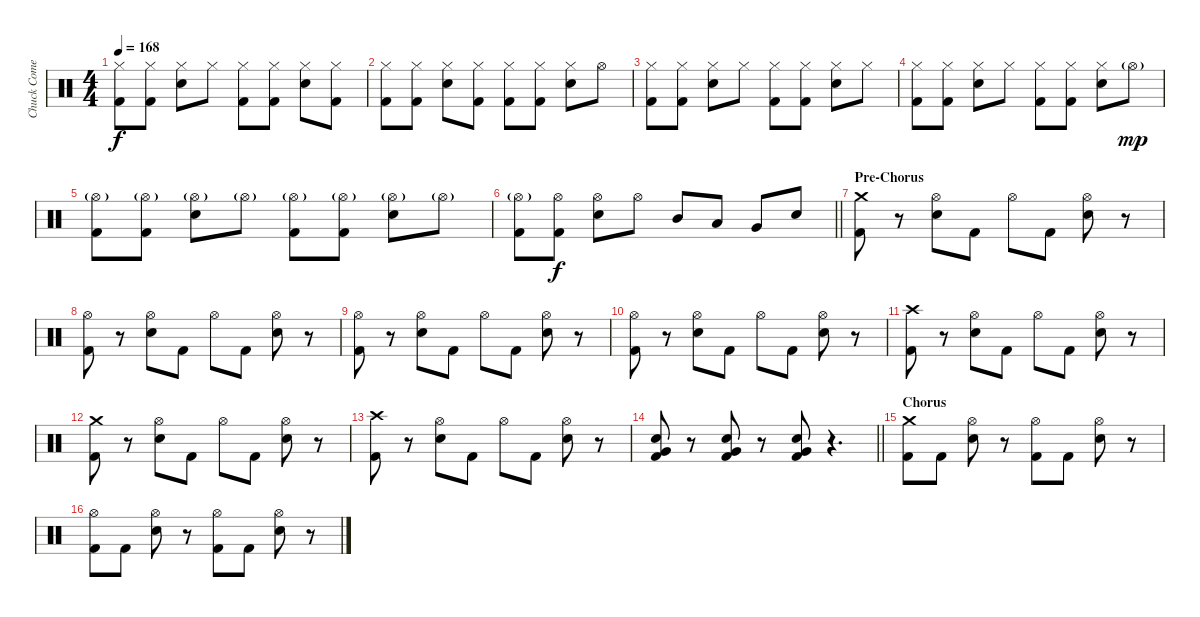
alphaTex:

\track ("Chuck Comeau" "Chuck Come") {instrument percussion}
\staff {score}
\articulation defaults
\ts (4 4)
\tempo 168
\clef neutral
\ks c
("Hi-Hat (closed)" "Kick (hit) 2").8{dy f} ("Hi-Hat (closed)" "Kick (hit) 2").8 ("Hi-Hat (closed)" "Snare (hit) 2").8 "Hi-Hat (closed)".8 ("Hi-Hat (closed)" "Kick (hit) 2").8 ("Hi-Hat (closed)" "Kick (hit) 2").8 ("Hi-Hat (closed)" "Snare (hit) 2").8 ("Hi-Hat (closed)" "Kick (hit) 2").8 |
("Hi-Hat (closed)" "Kick (hit) 2").8 ("Hi-Hat (closed)" "Kick (hit) 2").8 ("Hi-Hat (closed)" "Snare (hit) 2").8 ("Hi-Hat (closed)" "Kick (hit) 2").8 ("Hi-Hat (closed)" "Kick (hit) 2").8 ("Hi-Hat (closed)" "Kick (hit) 2").8 ("Hi-Hat (closed)" "Snare (hit) 2").8 "Hi-Hat (open)".8 |
("Hi-Hat (closed)" "Kick (hit) 2").8 ("Hi-Hat (closed)" "Kick (hit) 2").8 ("Hi-Hat (closed)" "Snare (hit) 2").8 "Hi-Hat (closed)".8 ("Hi-Hat (closed)" "Kick (hit) 2").8 ("Hi-Hat (closed)" "Kick (hit) 2").8 ("Hi-Hat (closed)" "Snare (hit) 2").8 "Hi-Hat (closed)".8 |
("Hi-Hat (closed)" "Kick (hit) 2").8 ("Hi-Hat (closed)" "Kick (hit) 2").8 ("Hi-Hat (closed)" "Snare (hit) 2").8 "Hi-Hat (closed)".8 ("Hi-Hat (closed)" "Kick (hit) 2").8 ("Hi-Hat (closed)" "Kick (hit) 2").8 ("Hi-Hat (closed)" "Snare (hit) 2").8 "Hi-Hat (open)"{g}.8{dy mp} |
("Hi-Hat (open)"{g} "Kick (hit) 2").8 ("Hi-Hat (open)"{g} "Kick (hit) 2").8 ("Hi-Hat (open)"{g} "Snare (hit) 2").8 "Hi-Hat (open)"{g}.8 ("Hi-Hat (open)"{g} "Kick (hit) 2").8 ("Hi-Hat (open)"{g} "Kick (hit) 2").8 ("Hi-Hat (open)"{g} "Snare (hit) 2").8 "Hi-Hat (open)"{g}.8 |
\barLineRight lightlight
("Hi-Hat (open)"{g} "Kick (hit) 2").8 ("Hi-Hat (open)" "Kick (hit) 2").8{dy f} ("Hi-Hat (open)" "Snare (hit) 2").8 "Hi-Hat (open)".8 "Mid Tom (hit)".8 "Low Tom (hit)".8 "Very Low Tom (hit)".8 "Snare (hit) 2".8 |
\section ("" "Pre-Chorus")
("Crash medium (hit)" "Kick (hit) 2").8 r.8 ("Hi-Hat (open)" "Snare (hit) 2").8 "Kick (hit) 2".8 "Hi-Hat (open)".8 "Kick (hit) 2".8 ("Hi-Hat (open)" "Snare (hit) 2").8 r.8 |
("Hi-Hat (open)" "Kick (hit) 2").8 r.8 ("Hi-Hat (open)" "Snare (hit) 2").8 "Kick (hit) 2".8 "Hi-Hat (open)".8 "Kick (hit) 2".8 ("Hi-Hat (open)" "Snare (hit) 2").8 r.8 |
("Hi-Hat (open)" "Kick (hit) 2").8 r.8 ("Hi-Hat (open)" "Snare (hit) 2").8 "Kick (hit) 2".8 "Hi-Hat (open)".8 "Kick (hit) 2".8 ("Hi-Hat (open)" "Snare (hit) 2").8 r.8 |
("Hi-Hat (open)" "Kick (hit) 2").8 r.8 ("Hi-Hat (open)" "Snare (hit) 2").8 "Kick (hit) 2".8 "Hi-Hat (open)".8 "Kick (hit) 2".8 ("Hi-Hat (open)" "Snare (hit) 2").8 r.8 |
("Crash high (hit)" "Kick (hit) 2").8 r.8 ("Hi-Hat (open)" "Snare (hit) 2").8 "Kick (hit) 2".8 "Hi-Hat (open)".8 "Kick (hit) 2".8 ("Hi-Hat (open)" "Snare (hit) 2").8 r.8 |
("Crash medium (hit)" "Kick (hit) 2").8 r.8 ("Hi-Hat (open)" "Snare (hit) 2").8 "Kick (hit) 2".8 "Hi-Hat (open)".8 "Kick (hit) 2".8 ("Hi-Hat (open)" "Snare (hit) 2").8 r.8 |
("Crash high (hit)" "Kick (hit) 2").8 r.8 ("Hi-Hat (open)" "Snare (hit) 2").8 "Kick (hit) 2".8 "Hi-Hat (open)".8 "Kick (hit) 2".8 ("Hi-Hat (open)" "Snare (hit) 2").8 r.8 |
\barLineRight lightlight
("Very Low Tom (hit)" "Snare (hit) 2" "Kick (hit) 2").8 r.8 ("Very Low Tom (hit)" "Snare (hit) 2" "Kick (hit) 2").8 r.8 ("Very Low Tom (hit)" "Snare (hit) 2" "Kick (hit) 2").8 r.4{d} |
\section ("" "Chorus")
("Crash medium (hit)" "Kick (hit) 2").8 "Kick (hit) 2".8 ("Hi-Hat (open)" "Snare (hit) 2").8 r.8 ("Hi-Hat (open)" "Kick (hit) 2").8 "Kick (hit) 2".8 ("Hi-Hat (open)" "Snare (hit) 2").8 r.8 |
("Hi-Hat (open)" "Kick (hit) 2").8 "Kick (hit) 2".8 ("Hi-Hat (open)" "Snare (hit) 2").8 r.8 ("Hi-Hat (open)" "Kick (hit) 2").8 "Kick (hit) 2".8 ("Hi-Hat (open)" "Snare (hit) 2").8 r.8
